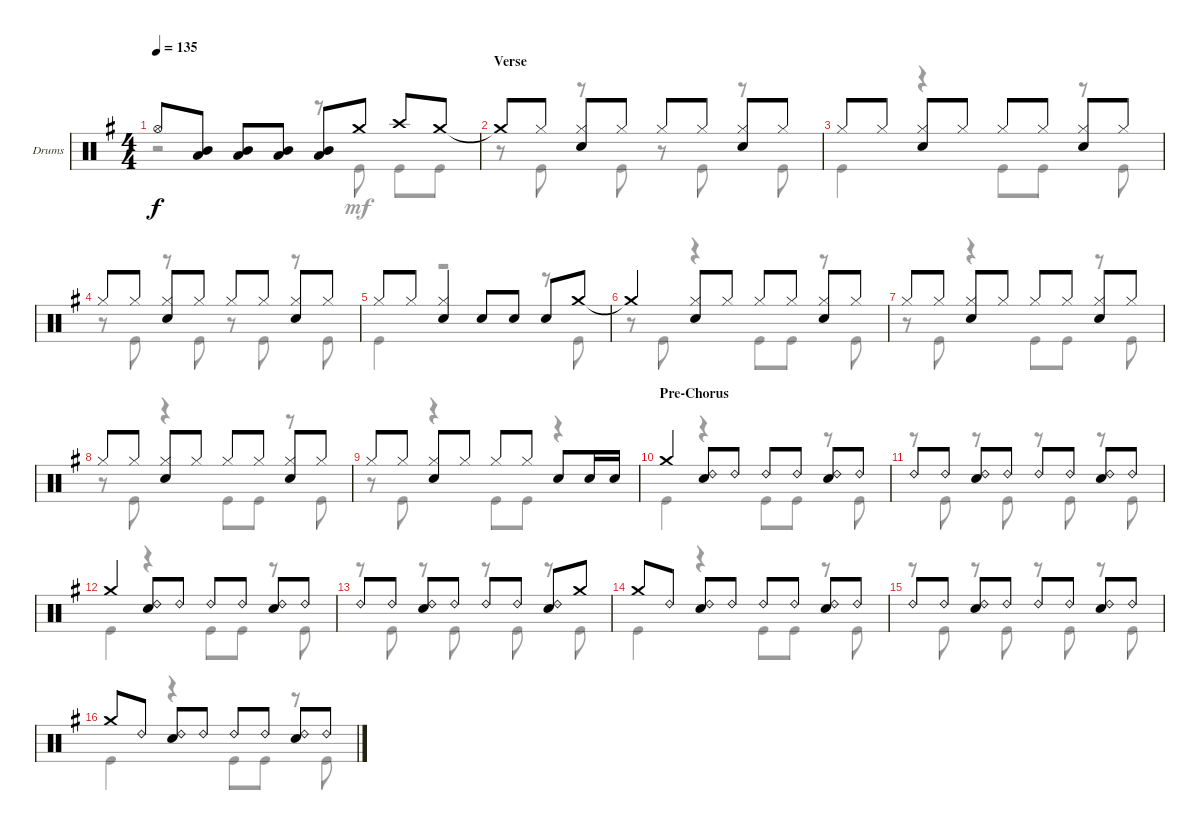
\defaultSystemsLayout 4
\bracketExtendMode groupsimilarinstruments
\firstSystemTrackNameOrientation horizontal
\otherSystemsTrackNameOrientation horizontal
\track ("Drumkit" "Drums") {instrument percussion}
\staff {score}
\articulation defaults
\voice
\ts (4 4)
\tempo 135
\clef neutral
\ks g "Hi-Hat (open)".8{dy f}
("Mid Tom (hit)" "Low Tom (hit)").8 ("Mid Tom (hit)" "Low Tom (hit)").8 ("Mid Tom (hit)" "Low Tom (hit)").8 ("Mid Tom (hit)" "Low Tom (hit)").8 "Crash medium (hit)".8 "Crash high (hit)".8 "Crash medium (hit)".8 |
\section ("" "Verse")
"Crash medium (hit)"{t}.8 "Hi-Hat (closed)".8 ("Hi-Hat (closed)" "Snare (hit) 2").8 "Hi-Hat (closed)".8 "Hi-Hat (closed)".8 "Hi-Hat (closed)".8 ("Hi-Hat (closed)" "Snare (hit) 2").8 "Hi-Hat (closed)".8 |
"Hi-Hat (closed)".8 "Hi-Hat (closed)".8 ("Hi-Hat (closed)" "Snare (hit) 2").8 "Hi-Hat (closed)".8 "Hi-Hat (closed)".8 "Hi-Hat (closed)".8 ("Hi-Hat (closed)" "Snare (hit) 2").8 "Hi-Hat (closed)".8 |
"Hi-Hat (closed)".8 "Hi-Hat (closed)".8 ("Hi-Hat (closed)" "Snare (hit) 2").8 "Hi-Hat (closed)".8 "Hi-Hat (closed)".8 "Hi-Hat (closed)".8 ("Hi-Hat (closed)" "Snare (hit) 2").8 "Hi-Hat (closed)".8 |
"Hi-Hat (closed)".8 "Hi-Hat (closed)".8 ("Hi-Hat (closed)" "Snare (hit) 2").4 "Snare (hit) 2".8 "Snare (hit) 2".8 "Snare (hit) 2".8 "Crash medium (hit)".8 |
"Crash medium (hit)"{t}.4 ("Hi-Hat (closed)" "Snare (hit) 2").8 "Hi-Hat (closed)".8 "Hi-Hat (closed)".8 "Hi-Hat (closed)".8 ("Hi-Hat (closed)" "Snare (hit) 2").8 "Hi-Hat (closed)".8 |
"Hi-Hat (closed)".8 "Hi-Hat (closed)".8 ("Hi-Hat (closed)" "Snare (hit) 2").8 "Hi-Hat (closed)".8 "Hi-Hat (closed)".8 "Hi-Hat (closed)".8 ("Hi-Hat (closed)" "Snare (hit) 2").8 "Hi-Hat (closed)".8 |
"Hi-Hat (closed)".8 "Hi-Hat (closed)".8 ("Hi-Hat (closed)" "Snare (hit) 2").8 "Hi-Hat (closed)".8 "Hi-Hat (closed)".8 "Hi-Hat (closed)".8 ("Hi-Hat (closed)" "Snare (hit) 2").8 "Hi-Hat (closed)".8 |
"Hi-Hat (closed)".8 "Hi-Hat (closed)".8 ("Hi-Hat (closed)" "Snare (hit) 2").8 "Hi-Hat (closed)".8 "Hi-Hat (closed)".8 "Hi-Hat (closed)".8 "Snare (hit) 2".8 "Snare (hit) 2".16 "Snare (hit) 2".16 |
\section ("" "Pre-Chorus")
"Crash medium (hit)".4 ("Ride (bell) 2" "Snare (hit) 2").8 "Ride (bell) 2".8 "Ride (bell) 2".8 "Ride (bell) 2".8 ("Ride (bell) 2" "Snare (hit) 2").8 "Ride (bell) 2".8 |
"Ride (bell) 2".8 "Ride (bell) 2".8 ("Ride (bell) 2" "Snare (hit) 2").8 "Ride (bell) 2".8 "Ride (bell) 2".8 "Ride (bell) 2".8 ("Ride (bell) 2" "Snare (hit) 2").8 "Ride (bell) 2".8 |
"Crash medium (hit)".4 ("Ride (bell) 2" "Snare (hit) 2").8 "Ride (bell) 2".8 "Ride (bell) 2".8 "Ride (bell) 2".8 ("Ride (bell) 2" "Snare (hit) 2").8 "Ride (bell) 2".8 |
"Ride (bell) 2".8 "Ride (bell) 2".8 ("Ride (bell) 2" "Snare (hit) 2").8 "Ride (bell) 2".8 "Ride (bell) 2".8 "Ride (bell) 2".8 ("Ride (bell) 2" "Snare (hit) 2").8 "Crash medium (hit)".8 |
"Crash medium (hit)".8 "Ride (bell) 2".8 ("Ride (bell) 2" "Snare (hit) 2").8 "Ride (bell) 2".8 "Ride (bell) 2".8 "Ride (bell) 2".8 ("Ride (bell) 2" "Snare (hit) 2").8 "Ride (bell) 2".8 |
"Ride (bell) 2".8 "Ride (bell) 2".8 ("Ride (bell) 2" "Snare (hit) 2").8 "Ride (bell) 2".8 "Ride (bell) 2".8 "Ride (bell) 2".8 ("Ride (bell) 2" "Snare (hit) 2").8 "Ride (bell) 2".8 |
"Crash medium (hit)".8 "Ride (bell) 2".8 ("Ride (bell) 2" "Snare (hit) 2").8 "Ride (bell) 2".8 "Ride (bell) 2".8 "Ride (bell) 2".8 ("Ride (bell) 2" "Snare (hit) 2").8 "Ride (bell) 2".8
\voice
\clef neutral
\ottava regular
\simile none
\ks g
r.2{dy mf} r.8 "Kick (hit)".8 "Kick (hit)".8 "Kick (hit)".8 |
r.8 "Kick (hit)".8 r.8 "Kick (hit)".8 r.8 "Kick (hit)".8 r.8 "Kick (hit)".8 |
"Kick (hit)".4 r.4 "Kick (hit)".8 "Kick (hit)".8 r.8 "Kick (hit)".8 |
r.8 "Kick (hit)".8 r.8 "Kick (hit)".8 r.8 "Kick (hit)".8 r.8 "Kick (hit)".8 |
"Kick (hit)".4 r.2 r.8 "Kick (hit)".8 |
r.8 "Kick (hit)".8 r.4 "Kick (hit)".8 "Kick (hit)".8 r.8 "Kick (hit)".8 |
r.8 "Kick (hit)".8 r.4 "Kick (hit)".8 "Kick (hit)".8 r.8 "Kick (hit)".8 |
r.8 "Kick (hit)".8 r.4 "Kick (hit)".8 "Kick (hit)".8 r.8 "Kick (hit)".8 |
r.8 "Kick (hit)".8 r.4 "Kick (hit)".8 "Kick (hit)".8 r.4 |
"Kick (hit)".4 r.4 "Kick (hit)".8 "Kick (hit)".8 r.8 "Kick (hit)".8 |
r.8 "Kick (hit)".8 r.8 "Kick (hit)".8 r.8 "Kick (hit)".8 r.8 "Kick (hit)".8 |
"Kick (hit)".4 r.4 "Kick (hit)".8 "Kick (hit)".8 r.8 "Kick (hit)".8 |
r.8 "Kick (hit)".8 r.8 "Kick (hit)".8 r.8 "Kick (hit)".8 r.8 "Kick (hit)".8 |
"Kick (hit)".4 r.4 "Kick (hit)".8 "Kick (hit)".8 r.8 "Kick (hit)".8 |
r.8 "Kick (hit)".8 r.8 "Kick (hit)".8 r.8 "Kick (hit)".8 r.8 "Kick (hit)".8 |
"Kick (hit)".4 r.4 "Kick (hit)".8 "Kick (hit)".8 r.8 "Kick (hit)".8
